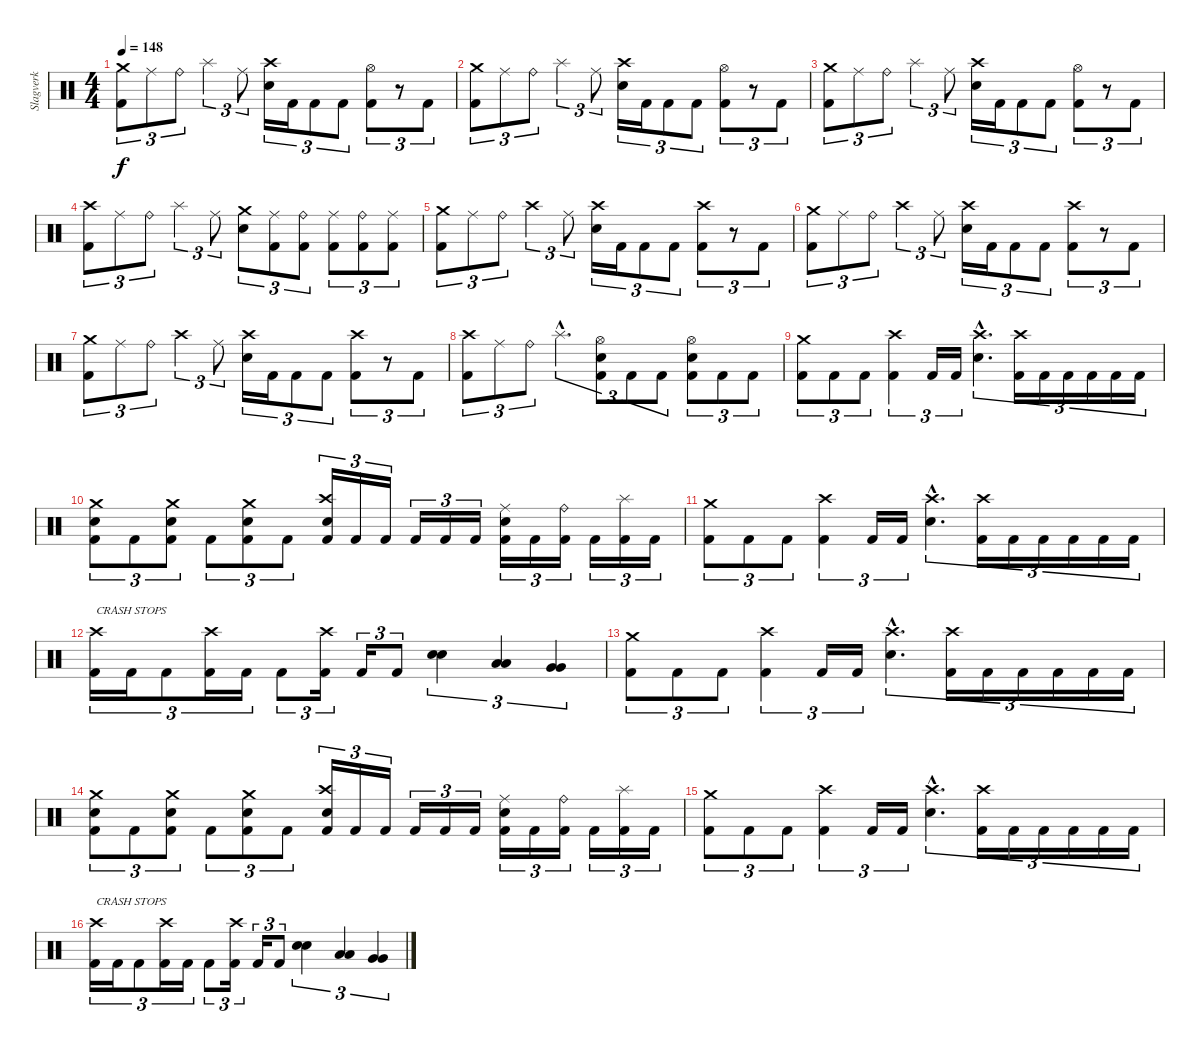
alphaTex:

\track ("Slagverk" "Slagverk") {instrument percussion}
\staff {score}
\articulation defaults
\ts (4 4)
\tempo 148
\clef neutral
\ks c
("Crash medium (hit)" "Kick (hit) 2").8{tu (3 2) dy f} "Ride (middle)".8{tu (3 2)} "Ride (bell)".8{tu (3 2)} "Splash (hit)".4{tu (3 2)} "Ride (middle)".8{tu (3 2)} ("Crash high (hit)" "Snare (hit) 2").16{tu (3 2)} "Kick (hit) 2".16{tu (3 2)} "Kick (hit) 2".8{tu (3 2)} "Kick (hit) 2".8{tu (3 2)} ("Hi-Hat (open)" "Kick (hit) 2").8{tu (3 2)} r.8{tu (3 2)} "Kick (hit) 2".8{tu (3 2)} |
("Crash medium (hit)" "Kick (hit) 2").8{tu (3 2)} "Ride (middle)".8{tu (3 2)} "Ride (bell)".8{tu (3 2)} "Splash (hit)".4{tu (3 2)} "Ride (middle)".8{tu (3 2)} ("Crash high (hit)" "Snare (hit) 2").16{tu (3 2)} "Kick (hit) 2".16{tu (3 2)} "Kick (hit) 2".8{tu (3 2)} "Kick (hit) 2".8{tu (3 2)} ("Hi-Hat (open)" "Kick (hit) 2").8{tu (3 2)} r.8{tu (3 2)} "Kick (hit) 2".8{tu (3 2)} |
("Crash medium (hit)" "Kick (hit) 2").8{tu (3 2)} "Ride (middle)".8{tu (3 2)} "Ride (bell)".8{tu (3 2)} "Splash (hit)".4{tu (3 2)} "Ride (middle)".8{tu (3 2)} ("Crash high (hit)" "Snare (hit) 2").16{tu (3 2)} "Kick (hit) 2".16{tu (3 2)} "Kick (hit) 2".8{tu (3 2)} "Kick (hit) 2".8{tu (3 2)} ("Hi-Hat (open)" "Kick (hit) 2").8{tu (3 2)} r.8{tu (3 2)} "Kick (hit) 2".8{tu (3 2)} |
("Crash high (hit)" "Kick (hit) 2").8{tu (3 2)} "Ride (middle)".8{tu (3 2)} "Ride (bell)".8{tu (3 2)} "Splash (hit)".4{tu (3 2)} "Ride (middle)".8{tu (3 2)} ("Crash medium (hit)" "Snare (hit) 2").8{tu (3 2)} ("Ride (middle)" "Kick (hit) 2").8{tu (3 2)} ("Ride (bell)" "Kick (hit) 2").8{tu (3 2)} ("Ride (middle)" "Kick (hit) 2").8{tu (3 2)} ("Ride (bell)" "Kick (hit) 2").8{tu (3 2)} ("Ride (middle)" "Kick (hit) 2").8{tu (3 2)} |
("Crash medium (hit)" "Kick (hit) 2").8{tu (3 2)} "Ride (middle)".8{tu (3 2)} "Ride (bell)".8{tu (3 2)} "Crash high (hit)".4{tu (3 2)} "Ride (middle)".8{tu (3 2)} ("Crash high (hit)" "Snare (hit) 2").16{tu (3 2)} "Kick (hit) 2".16{tu (3 2)} "Kick (hit) 2".8{tu (3 2)} "Kick (hit) 2".8{tu (3 2)} ("Crash high (hit)" "Kick (hit) 2").8{tu (3 2)} r.8{tu (3 2)} "Kick (hit) 2".8{tu (3 2)} |
("Crash medium (hit)" "Kick (hit) 2").8{tu (3 2)} "Ride (middle)".8{tu (3 2)} "Ride (bell)".8{tu (3 2)} "Crash high (hit)".4{tu (3 2)} "Ride (middle)".8{tu (3 2)} ("Crash high (hit)" "Snare (hit) 2").16{tu (3 2)} "Kick (hit) 2".16{tu (3 2)} "Kick (hit) 2".8{tu (3 2)} "Kick (hit) 2".8{tu (3 2)} ("Crash high (hit)" "Kick (hit) 2").8{tu (3 2)} r.8{tu (3 2)} "Kick (hit) 2".8{tu (3 2)} |
("Crash medium (hit)" "Kick (hit) 2").8{tu (3 2)} "Ride (middle)".8{tu (3 2)} "Ride (bell)".8{tu (3 2)} "Crash high (hit)".4{tu (3 2)} "Ride (middle)".8{tu (3 2)} ("Crash high (hit)" "Snare (hit) 2").16{tu (3 2)} "Kick (hit) 2".16{tu (3 2)} "Kick (hit) 2".8{tu (3 2)} "Kick (hit) 2".8{tu (3 2)} ("Crash high (hit)" "Kick (hit) 2").8{tu (3 2)} r.8{tu (3 2)} "Kick (hit) 2".8{tu (3 2)} |
("Crash high (hit)" "Kick (hit) 2").8{tu (3 2)} "Ride (middle)".8{tu (3 2)} "Ride (bell)".8{tu (3 2)} "Splash (hit)"{hac}.4{d tu (3 2)} ("Hi-Hat (open)" "Snare (hit) 2" "Kick (hit) 2").8{tu (3 2)} "Kick (hit) 2".8{tu (3 2)} "Kick (hit) 2".8{tu (3 2)} ("Hi-Hat (open)" "Snare (hit) 2" "Kick (hit) 2").8{tu (3 2)} "Kick (hit) 2".8{tu (3 2)} "Kick (hit) 2".8{tu (3 2)} |
("Crash medium (hit)" "Kick (hit) 2").8{tu (3 2)} "Kick (hit) 2".8{tu (3 2)} "Kick (hit) 2".8{tu (3 2)} ("Crash high (hit)" "Kick (hit) 2").4{tu (3 2)} "Kick (hit) 2".16{tu (3 2)} "Kick (hit) 2".16{tu (3 2)} ("Crash high (hit)"{hac} "Snare (hit) 2"{hac}).4{d tu (3 2)} ("Crash high (hit)" "Kick (hit) 2").16{tu (3 2)} "Kick (hit) 2".16{tu (3 2)} "Kick (hit) 2".16{tu (3 2)} "Kick (hit) 2".16{tu (3 2)} "Kick (hit) 2".16{tu (3 2)} "Kick (hit) 2".16{tu (3 2)} |
("Crash medium (hit)" "Snare (hit) 2" "Kick (hit) 2").8{tu (3 2)} "Kick (hit) 2".8{tu (3 2)} ("Crash medium (hit)" "Snare (hit) 2" "Kick (hit) 2").8{tu (3 2)} "Kick (hit) 2".8{tu (3 2)} ("Crash medium (hit)" "Snare (hit) 2" "Kick (hit) 2").8{tu (3 2)} "Kick (hit) 2".8{tu (3 2)} ("Crash high (hit)" "Snare (hit) 2" "Kick (hit) 2").16{tu (3 2)} "Kick (hit) 2".16{tu (3 2)} "Kick (hit) 2".16{tu (3 2)} "Kick (hit) 2".16{tu (3 2)} "Kick (hit) 2".16{tu (3 2)} "Kick (hit) 2".16{tu (3 2)} ("Ride (middle)" "Snare (hit) 2" "Kick (hit) 2").16{tu (3 2)} "Kick (hit) 2".16{tu (3 2)} ("Ride (bell)" "Kick (hit) 2").16{tu (3 2)} "Kick (hit) 2".16{tu (3 2)} ("Splash (hit)" "Kick (hit) 2").16{tu (3 2)} "Kick (hit) 2".16{tu (3 2)} |
("Crash medium (hit)" "Kick (hit) 2").8{tu (3 2)} "Kick (hit) 2".8{tu (3 2)} "Kick (hit) 2".8{tu (3 2)} ("Crash high (hit)" "Kick (hit) 2").4{tu (3 2)} "Kick (hit) 2".16{tu (3 2)} "Kick (hit) 2".16{tu (3 2)} ("Crash high (hit)"{hac} "Snare (hit) 2"{hac}).4{d tu (3 2)} ("Crash high (hit)" "Kick (hit) 2").16{tu (3 2)} "Kick (hit) 2".16{tu (3 2)} "Kick (hit) 2".16{tu (3 2)} "Kick (hit) 2".16{tu (3 2)} "Kick (hit) 2".16{tu (3 2)} "Kick (hit) 2".16{tu (3 2)} |
("Crash high (hit)" "Kick (hit) 2").16{tu (3 2) txt "CRASH STOPS"} "Kick (hit) 2".16{tu (3 2)} "Kick (hit) 2".8{tu (3 2)} ("Crash high (hit)" "Kick (hit) 2").16{tu (3 2)} "Kick (hit) 2".16{tu (3 2)} "Kick (hit) 2".8{tu (3 2)} ("Crash high (hit)" "Kick (hit) 2").16{tu (3 2)} "Kick (hit) 2".16{tu (3 2)} "Kick (hit) 2".8{tu (3 2)} ("Snare (hit) 2" "Snare (hit) 2").4{tu (3 2)} ("Low Tom (hit)" "Low Tom (hit)").4{tu (3 2)} ("Very Low Tom (hit)" "Very Low Tom (hit)").4{tu (3 2)} |
("Crash medium (hit)" "Kick (hit) 2").8{tu (3 2)} "Kick (hit) 2".8{tu (3 2)} "Kick (hit) 2".8{tu (3 2)} ("Crash high (hit)" "Kick (hit) 2").4{tu (3 2)} "Kick (hit) 2".16{tu (3 2)} "Kick (hit) 2".16{tu (3 2)} ("Crash high (hit)"{hac} "Snare (hit) 2"{hac}).4{d tu (3 2)} ("Crash high (hit)" "Kick (hit) 2").16{tu (3 2)} "Kick (hit) 2".16{tu (3 2)} "Kick (hit) 2".16{tu (3 2)} "Kick (hit) 2".16{tu (3 2)} "Kick (hit) 2".16{tu (3 2)} "Kick (hit) 2".16{tu (3 2)} |
("Crash medium (hit)" "Snare (hit) 2" "Kick (hit) 2").8{tu (3 2)} "Kick (hit) 2".8{tu (3 2)} ("Crash medium (hit)" "Snare (hit) 2" "Kick (hit) 2").8{tu (3 2)} "Kick (hit) 2".8{tu (3 2)} ("Crash medium (hit)" "Snare (hit) 2" "Kick (hit) 2").8{tu (3 2)} "Kick (hit) 2".8{tu (3 2)} ("Crash high (hit)" "Snare (hit) 2" "Kick (hit) 2").16{tu (3 2)} "Kick (hit) 2".16{tu (3 2)} "Kick (hit) 2".16{tu (3 2)} "Kick (hit) 2".16{tu (3 2)} "Kick (hit) 2".16{tu (3 2)} "Kick (hit) 2".16{tu (3 2)} ("Ride (middle)" "Snare (hit) 2" "Kick (hit) 2").16{tu (3 2)} "Kick (hit) 2".16{tu (3 2)} ("Ride (bell)" "Kick (hit) 2").16{tu (3 2)} "Kick (hit) 2".16{tu (3 2)} ("Splash (hit)" "Kick (hit) 2").16{tu (3 2)} "Kick (hit) 2".16{tu (3 2)} |
("Crash medium (hit)" "Kick (hit) 2").8{tu (3 2)} "Kick (hit) 2".8{tu (3 2)} "Kick (hit) 2".8{tu (3 2)} ("Crash high (hit)" "Kick (hit) 2").4{tu (3 2)} "Kick (hit) 2".16{tu (3 2)} "Kick (hit) 2".16{tu (3 2)} ("Crash high (hit)"{hac} "Snare (hit) 2"{hac}).4{d tu (3 2)} ("Crash high (hit)" "Kick (hit) 2").16{tu (3 2)} "Kick (hit) 2".16{tu (3 2)} "Kick (hit) 2".16{tu (3 2)} "Kick (hit) 2".16{tu (3 2)} "Kick (hit) 2".16{tu (3 2)} "Kick (hit) 2".16{tu (3 2)} |
("Crash high (hit)" "Kick (hit) 2").16{tu (3 2) txt "CRASH STOPS"} "Kick (hit) 2".16{tu (3 2)} "Kick (hit) 2".8{tu (3 2)} ("Crash high (hit)" "Kick (hit) 2").16{tu (3 2)} "Kick (hit) 2".16{tu (3 2)} "Kick (hit) 2".8{tu (3 2)} ("Crash high (hit)" "Kick (hit) 2").16{tu (3 2)} "Kick (hit) 2".16{tu (3 2)} "Kick (hit) 2".8{tu (3 2)} ("Snare (hit) 2" "Snare (hit) 2").4{tu (3 2)} ("Low Tom (hit)" "Low Tom (hit)").4{tu (3 2)} ("Very Low Tom (hit)" "Very Low Tom (hit)").4{tu (3 2)}
